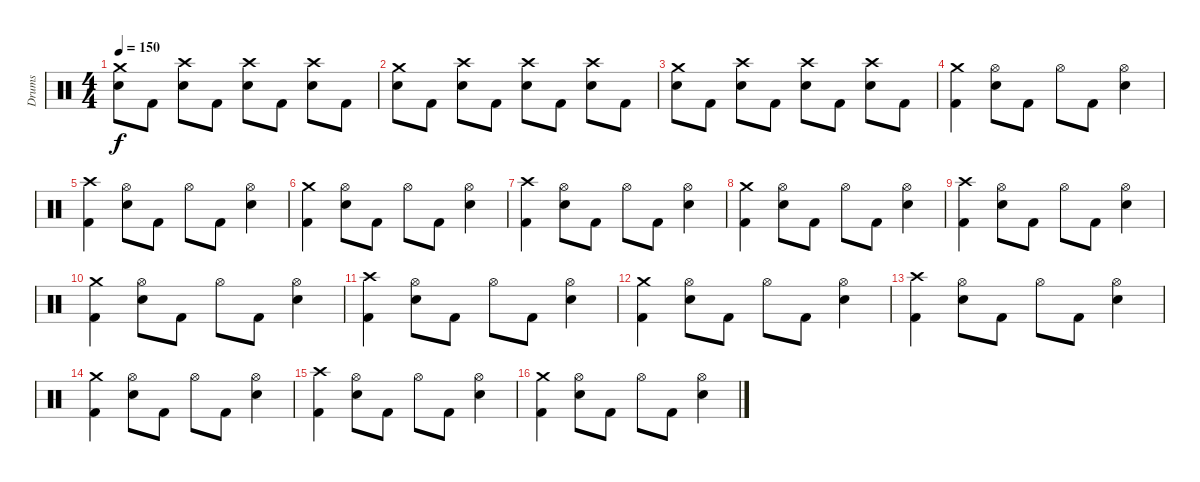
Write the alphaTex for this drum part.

\track ("Drums" "Drums") {instrument percussion}
\staff {score}
\articulation defaults
\ts (4 4)
\tempo 150
\clef neutral
\ks c
("Crash medium (hit)" "Electric Snare (hit)").8{dy f} "Kick (hit) 2".8 ("Crash high (hit)" "Electric Snare (hit)").8 "Kick (hit) 2".8 ("Crash high (hit)" "Electric Snare (hit)").8 "Kick (hit) 2".8 ("Crash high (hit)" "Electric Snare (hit)").8 "Kick (hit) 2".8 |
("Crash medium (hit)" "Electric Snare (hit)").8 "Kick (hit) 2".8 ("Crash high (hit)" "Electric Snare (hit)").8 "Kick (hit) 2".8 ("Crash high (hit)" "Electric Snare (hit)").8 "Kick (hit) 2".8 ("Crash high (hit)" "Electric Snare (hit)").8 "Kick (hit) 2".8 |
("Crash medium (hit)" "Electric Snare (hit)").8 "Kick (hit) 2".8 ("Crash high (hit)" "Electric Snare (hit)").8 "Kick (hit) 2".8 ("Crash high (hit)" "Electric Snare (hit)").8 "Kick (hit) 2".8 ("Crash high (hit)" "Electric Snare (hit)").8 "Kick (hit) 2".8 |
("Crash medium (hit)" "Kick (hit) 2").4 ("Hi-Hat (open)" "Electric Snare (hit)").8 "Kick (hit) 2".8 "Hi-Hat (open)".8 "Kick (hit) 2".8 ("Hi-Hat (open)" "Electric Snare (hit)").4 |
("Crash high (hit)" "Kick (hit) 2").4 ("Hi-Hat (open)" "Electric Snare (hit)").8 "Kick (hit) 2".8 "Hi-Hat (open)".8 "Kick (hit) 2".8 ("Hi-Hat (open)" "Electric Snare (hit)").4 |
("Crash medium (hit)" "Kick (hit) 2").4 ("Hi-Hat (open)" "Electric Snare (hit)").8 "Kick (hit) 2".8 "Hi-Hat (open)".8 "Kick (hit) 2".8 ("Hi-Hat (open)" "Electric Snare (hit)").4 |
("Crash high (hit)" "Kick (hit) 2").4 ("Hi-Hat (open)" "Electric Snare (hit)").8 "Kick (hit) 2".8 "Hi-Hat (open)".8 "Kick (hit) 2".8 ("Hi-Hat (open)" "Electric Snare (hit)").4 |
("Crash medium (hit)" "Kick (hit) 2").4 ("Hi-Hat (open)" "Electric Snare (hit)").8 "Kick (hit) 2".8 "Hi-Hat (open)".8 "Kick (hit) 2".8 ("Hi-Hat (open)" "Electric Snare (hit)").4 |
("Crash high (hit)" "Kick (hit) 2").4 ("Hi-Hat (open)" "Electric Snare (hit)").8 "Kick (hit) 2".8 "Hi-Hat (open)".8 "Kick (hit) 2".8 ("Hi-Hat (open)" "Electric Snare (hit)").4 |
("Crash medium (hit)" "Kick (hit) 2").4 ("Hi-Hat (open)" "Electric Snare (hit)").8 "Kick (hit) 2".8 "Hi-Hat (open)".8 "Kick (hit) 2".8 ("Hi-Hat (open)" "Electric Snare (hit)").4 |
("Crash high (hit)" "Kick (hit) 2").4 ("Hi-Hat (open)" "Electric Snare (hit)").8 "Kick (hit) 2".8 "Hi-Hat (open)".8 "Kick (hit) 2".8 ("Hi-Hat (open)" "Electric Snare (hit)").4 |
("Crash medium (hit)" "Kick (hit) 2").4 ("Hi-Hat (open)" "Electric Snare (hit)").8 "Kick (hit) 2".8 "Hi-Hat (open)".8 "Kick (hit) 2".8 ("Hi-Hat (open)" "Electric Snare (hit)").4 |
("Crash high (hit)" "Kick (hit) 2").4 ("Hi-Hat (open)" "Electric Snare (hit)").8 "Kick (hit) 2".8 "Hi-Hat (open)".8 "Kick (hit) 2".8 ("Hi-Hat (open)" "Electric Snare (hit)").4 |
("Crash medium (hit)" "Kick (hit) 2").4 ("Hi-Hat (open)" "Electric Snare (hit)").8 "Kick (hit) 2".8 "Hi-Hat (open)".8 "Kick (hit) 2".8 ("Hi-Hat (open)" "Electric Snare (hit)").4 |
("Crash high (hit)" "Kick (hit) 2").4 ("Hi-Hat (open)" "Electric Snare (hit)").8 "Kick (hit) 2".8 "Hi-Hat (open)".8 "Kick (hit) 2".8 ("Hi-Hat (open)" "Electric Snare (hit)").4 |
("Crash medium (hit)" "Kick (hit) 2").4 ("Hi-Hat (open)" "Electric Snare (hit)").8 "Kick (hit) 2".8 "Hi-Hat (open)".8 "Kick (hit) 2".8 ("Hi-Hat (open)" "Electric Snare (hit)").4
